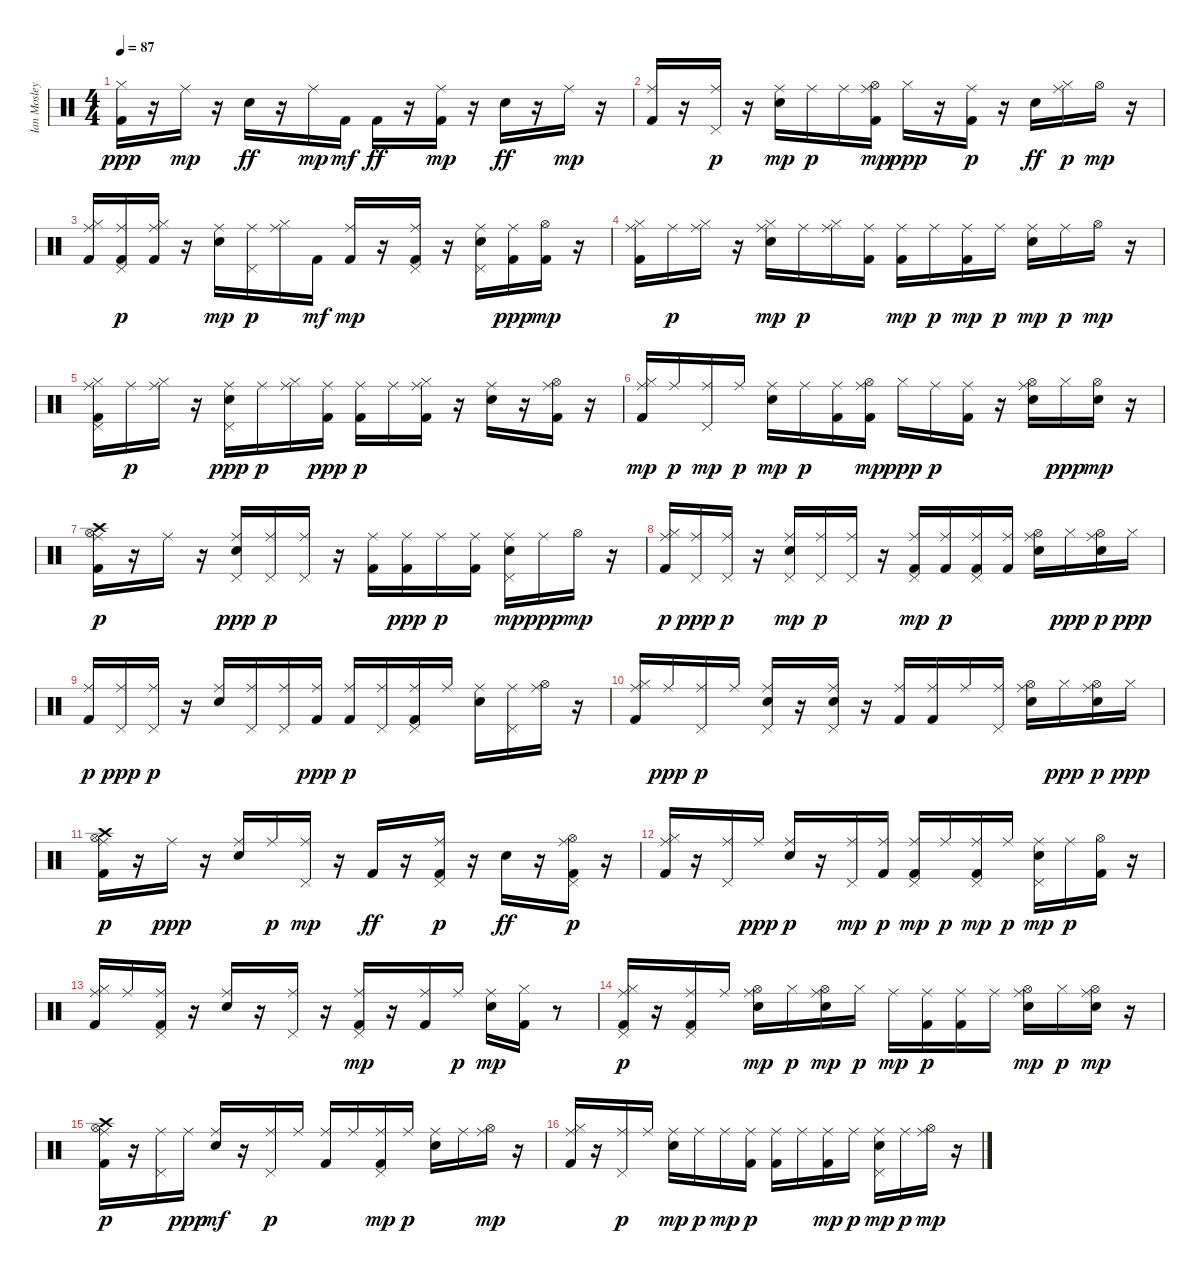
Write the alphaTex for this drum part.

\track ("Ian Mosley" "Ian Mosley") {instrument percussion}
\staff {score}
\articulation defaults
\ts (4 4)
\tempo 87
\clef neutral
\ks c
("Kick (hit) 2" "Hi-Hat (closed)").16{dy ppp} r.16 "Ride (middle)".16{dy mp} r.16 "Snare (hit) 2".16{dy ff} r.16 "Ride (middle)".16{dy mp} "Kick (hit) 2".16{dy mf} "Kick (hit) 2".16{dy ff} r.16 ("Kick (hit) 2" "Ride (middle)").16{dy mp} r.16 "Snare (hit) 2".16{dy ff} r.16 "Ride (middle)".16{dy mp} r.16 |
("Kick (hit) 2" "Ride (middle)").16 r.16 ("Pedal Hi-Hat (hit)" "Ride (middle)").16{dy p} r.16 ("Snare (hit) 2" "Ride (middle)").16{dy mp} "Ride (middle)".16{dy p} "Ride (middle)".16 ("Kick (hit) 2" "Hi-Hat (open)" "Ride (middle)").16{dy mp} "Hi-Hat (closed)".16{dy ppp} r.16 ("Kick (hit) 2" "Ride (middle)").16{dy p} r.16 "Snare (hit) 2".16{dy ff} ("Hi-Hat (closed)" "Ride (middle)").16{dy p} "Hi-Hat (open)".16{dy mp} r.16 |
("Kick (hit) 2" "Hi-Hat (closed)" "Ride (middle)").16 ("Pedal Hi-Hat (hit)" "Kick (hit) 2" "Ride (middle)").16{dy p} ("Hi-Hat (closed)" "Kick (hit) 2" "Ride (middle)").16 r.16 ("Snare (hit) 2" "Ride (middle)").16{dy mp} ("Pedal Hi-Hat (hit)" "Ride (middle)").16{dy p} ("Hi-Hat (closed)" "Ride (middle)").16 "Kick (hit) 2".16{dy mf} ("Kick (hit) 2" "Ride (middle)").16{dy mp} r.16 ("Pedal Hi-Hat (hit)" "Kick (hit) 2" "Ride (middle)").16 r.16 ("Snare (hit) 2" "Pedal Hi-Hat (hit)" "Ride (middle)").16 ("Kick (hit) 2" "Ride (middle)").16{dy ppp} ("Kick (hit) 2" "Hi-Hat (open)").16{dy mp} r.16 |
("Kick (hit) 2" "Hi-Hat (closed)" "Ride (middle)").16 "Ride (middle)".16{dy p} ("Hi-Hat (closed)" "Ride (middle)").16 r.16 ("Snare (hit) 2" "Hi-Hat (closed)" "Ride (middle)").16{dy mp} "Ride (middle)".16{dy p} ("Hi-Hat (closed)" "Ride (middle)").16 ("Kick (hit) 2" "Ride (middle)").16 ("Kick (hit) 2" "Ride (middle)").16{dy mp} "Ride (middle)".16{dy p} ("Kick (hit) 2" "Ride (middle)").16{dy mp} "Ride (middle)".16{dy p} ("Snare (hit) 2" "Ride (middle)").16{dy mp} "Ride (middle)".16{dy p} "Hi-Hat (open)".16{dy mp} r.16 |
("Hi-Hat (closed)" "Kick (hit) 2" "Pedal Hi-Hat (hit)" "Ride (middle)").16 "Ride (middle)".16{dy p} ("Hi-Hat (closed)" "Ride (middle)").16 r.16 ("Snare (hit) 2" "Pedal Hi-Hat (hit)" "Ride (middle)").16{dy ppp} "Ride (middle)".16{dy p} ("Hi-Hat (closed)" "Ride (middle)").16 ("Kick (hit) 2" "Ride (middle)").16{dy ppp} ("Kick (hit) 2" "Ride (middle)").16{dy p} "Ride (middle)".16 ("Kick (hit) 2" "Hi-Hat (closed)" "Ride (middle)").16 r.16 ("Snare (hit) 2" "Ride (middle)").16 r.16 ("Kick (hit) 2" "Hi-Hat (open)" "Ride (middle)").16 r.16 |
("Kick (hit) 2" "Hi-Hat (closed)" "Ride (middle)").16{dy mp} "Ride (middle)".16{dy p} ("Pedal Hi-Hat (hit)" "Ride (middle)").16{dy mp} "Ride (middle)".16{dy p} ("Snare (hit) 2" "Ride (middle)").16{dy mp} "Ride (middle)".16{dy p} ("Kick (hit) 2" "Ride (middle)").16 ("Kick (hit) 2" "Hi-Hat (open)" "Ride (middle)").16{dy mp} "Hi-Hat (closed)".16{dy ppp} "Ride (middle)".16{dy p} ("Kick (hit) 2" "Ride (middle)").16 r.16 ("Snare (hit) 2" "Hi-Hat (open)" "Ride (middle)").16 "Hi-Hat (closed)".16{dy ppp} ("Snare (hit) 2" "Hi-Hat (open)").16{dy mp} r.16 |
("Kick (hit) 2" "Hi-Hat (open)" "Crash high (hit)" "Ride (middle)").16{dy p} r.16 "Ride (middle)".16 r.16 ("Pedal Hi-Hat (hit)" "Snare (hit) 2" "Ride (middle)").16{dy ppp} ("Pedal Hi-Hat (hit)" "Ride (middle)").16{dy p} ("Pedal Hi-Hat (hit)" "Ride (middle)").16 r.16 ("Kick (hit) 2" "Ride (middle)").16 ("Kick (hit) 2" "Ride (middle)").16{dy ppp} "Ride (middle)".16{dy p} ("Kick (hit) 2" "Ride (middle)").16 ("Snare (hit) 2" "Pedal Hi-Hat (hit)" "Ride (middle)").16{dy mp} "Ride (middle)".16{dy ppp} "Hi-Hat (open)".16{dy mp} r.16 |
("Kick (hit) 2" "Hi-Hat (closed)" "Ride (middle)").16{dy p} ("Pedal Hi-Hat (hit)" "Ride (middle)").16{dy ppp} ("Pedal Hi-Hat (hit)" "Ride (middle)").16{dy p} r.16 ("Snare (hit) 2" "Pedal Hi-Hat (hit)" "Ride (middle)").16{dy mp} ("Pedal Hi-Hat (hit)" "Ride (middle)").16{dy p} ("Pedal Hi-Hat (hit)" "Ride (middle)").16 r.16 ("Kick (hit) 2" "Pedal Hi-Hat (hit)" "Ride (middle)").16{dy mp} ("Kick (hit) 2" "Ride (middle)").16{dy p} ("Kick (hit) 2" "Pedal Hi-Hat (hit)" "Ride (middle)").16 ("Kick (hit) 2" "Ride (middle)").16 ("Snare (hit) 2" "Hi-Hat (open)" "Ride (middle)").16 "Hi-Hat (closed)".16{dy ppp} ("Snare (hit) 2" "Hi-Hat (open)" "Ride (middle)").16{dy p} "Hi-Hat (closed)".16{dy ppp} |
("Kick (hit) 2" "Ride (middle)").16{dy p} ("Pedal Hi-Hat (hit)" "Ride (middle)").16{dy ppp} ("Pedal Hi-Hat (hit)" "Ride (middle)").16{dy p} r.16 ("Snare (hit) 2" "Ride (middle)").16 ("Pedal Hi-Hat (hit)" "Ride (middle)").16 ("Pedal Hi-Hat (hit)" "Ride (middle)").16 ("Kick (hit) 2" "Ride (middle)").16{dy ppp} ("Kick (hit) 2" "Ride (middle)").16{dy p} ("Pedal Hi-Hat (hit)" "Ride (middle)").16 ("Kick (hit) 2" "Pedal Hi-Hat (hit)" "Ride (middle)").16 "Ride (middle)".16 ("Snare (hit) 2" "Ride (middle)").16 ("Pedal Hi-Hat (hit)" "Ride (middle)").16 ("Hi-Hat (open)" "Ride (middle)").16 r.16 |
("Kick (hit) 2" "Hi-Hat (closed)" "Ride (middle)").16 "Ride (middle)".16{dy ppp} ("Pedal Hi-Hat (hit)" "Ride (middle)").16{dy p} "Ride (middle)".16 ("Snare (hit) 2" "Pedal Hi-Hat (hit)" "Ride (middle)").16 r.16 ("Snare (hit) 2" "Pedal Hi-Hat (hit)" "Ride (middle)").16 r.16 ("Kick (hit) 2" "Ride (middle)").16 ("Kick (hit) 2" "Ride (middle)").16 "Ride (middle)".16 ("Pedal Hi-Hat (hit)" "Ride (middle)").16 ("Snare (hit) 2" "Hi-Hat (open)" "Ride (middle)").16 "Hi-Hat (closed)".16{dy ppp} ("Snare (hit) 2" "Hi-Hat (open)" "Ride (middle)").16{dy p} "Hi-Hat (closed)".16{dy ppp} |
("Kick (hit) 2" "Hi-Hat (open)" "Crash high (hit)" "Ride (middle)").16{dy p} r.16 "Ride (middle)".16{dy ppp} r.16 ("Snare (hit) 2" "Ride (middle)").16 "Ride (middle)".16{dy p} ("Pedal Hi-Hat (hit)" "Ride (middle)").16{dy mp} r.16 "Kick (hit) 2".16{dy ff} r.16 ("Kick (hit) 2" "Pedal Hi-Hat (hit)" "Ride (middle)").16{dy p} r.16 "Snare (hit) 2".16{dy ff} r.16 ("Kick (hit) 2" "Pedal Hi-Hat (hit)" "Hi-Hat (open)" "Ride (middle)").16{dy p} r.16 |
("Hi-Hat (closed)" "Kick (hit) 2" "Ride (middle)").16 r.16 ("Pedal Hi-Hat (hit)" "Ride (middle)").16 "Ride (middle)".16{dy ppp} ("Snare (hit) 2" "Ride (middle)").16{dy p} r.16 ("Pedal Hi-Hat (hit)" "Ride (middle)").16{dy mp} ("Kick (hit) 2" "Ride (middle)").16{dy p} ("Kick (hit) 2" "Pedal Hi-Hat (hit)" "Ride (middle)").16{dy mp} "Ride (middle)".16{dy p} ("Kick (hit) 2" "Pedal Hi-Hat (hit)" "Ride (middle)").16{dy mp} "Ride (middle)".16{dy p} ("Snare (hit) 2" "Pedal Hi-Hat (hit)" "Ride (middle)").16{dy mp} "Ride (middle)".16{dy p} ("Kick (hit) 2" "Hi-Hat (open)").16 r.16 |
("Kick (hit) 2" "Hi-Hat (closed)" "Ride (middle)").16 "Ride (middle)".16 ("Kick (hit) 2" "Pedal Hi-Hat (hit)" "Ride (middle)").16 r.16 ("Snare (hit) 2" "Ride (middle)").16 r.16 ("Pedal Hi-Hat (hit)" "Ride (middle)").16 r.16 ("Kick (hit) 2" "Pedal Hi-Hat (hit)" "Ride (middle)").16{dy mp} r.16 ("Kick (hit) 2" "Ride (middle)").16 "Ride (middle)".16{dy p} ("Snare (hit) 2" "Ride (middle)").16{dy mp} ("Kick (hit) 2" "Hi-Hat (closed)").16 r.8 |
("Kick (hit) 2" "Hi-Hat (closed)" "Pedal Hi-Hat (hit)" "Ride (middle)").16{dy p} r.16 ("Pedal Hi-Hat (hit)" "Kick (hit) 2" "Ride (middle)").16 "Ride (middle)".16 ("Snare (hit) 2" "Hi-Hat (open)" "Ride (middle)").16{dy mp} "Hi-Hat (closed)".16{dy p} ("Snare (hit) 2" "Hi-Hat (open)" "Ride (middle)").16{dy mp} "Hi-Hat (closed)".16{dy p} "Ride (middle)".16{dy mp} ("Kick (hit) 2" "Ride (middle)").16{dy p} ("Kick (hit) 2" "Ride (middle)").16 "Ride (middle)".16 ("Snare (hit) 2" "Hi-Hat (open)" "Ride (middle)").16{dy mp} "Hi-Hat (closed)".16{dy p} ("Snare (hit) 2" "Hi-Hat (open)" "Ride (middle)").16{dy mp} r.16 |
("Kick (hit) 2" "Hi-Hat (open)" "Crash high (hit)" "Ride (middle)").16{dy p} r.16 ("Pedal Hi-Hat (hit)" "Ride (middle)").16 "Ride (middle)".16{dy ppp} ("Snare (hit) 2" "Ride (middle)").16{dy mf} r.16 ("Pedal Hi-Hat (hit)" "Ride (middle)").16{dy p} "Ride (middle)".16 ("Kick (hit) 2" "Ride (middle)").16 "Ride (middle)".16 ("Kick (hit) 2" "Pedal Hi-Hat (hit)" "Ride (middle)").16{dy mp} "Ride (middle)".16{dy p} ("Snare (hit) 2" "Ride (middle)").16 "Ride (middle)".16 ("Hi-Hat (open)" "Ride (middle)").16{dy mp} r.16 |
("Hi-Hat (closed)" "Kick (hit) 2" "Ride (middle)").16 r.16 ("Pedal Hi-Hat (hit)" "Ride (middle)").16{dy p} "Ride (middle)".16 ("Snare (hit) 2" "Ride (middle)").16{dy mp} "Ride (middle)".16{dy p} "Ride (middle)".16{dy mp} ("Kick (hit) 2" "Ride (middle)").16{dy p} ("Kick (hit) 2" "Ride (middle)").16 "Ride (middle)".16 ("Kick (hit) 2" "Ride (middle)").16{dy mp} "Ride (middle)".16{dy p} ("Snare (hit) 2" "Pedal Hi-Hat (hit)" "Ride (middle)").16{dy mp} "Ride (middle)".16{dy p} ("Hi-Hat (open)" "Ride (middle)").16{dy mp} r.16
